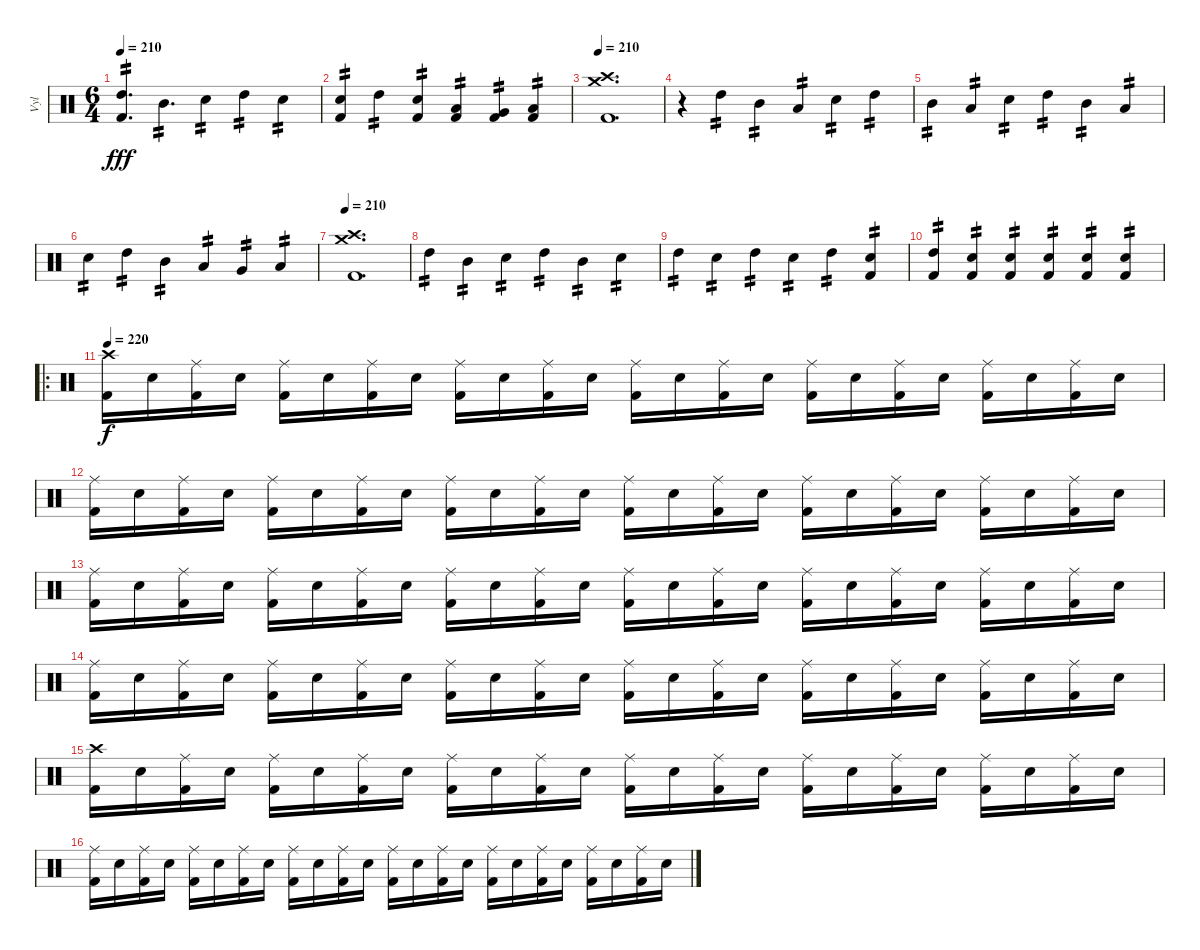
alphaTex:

\track ("Vyl" "Vyl") {instrument percussion}
\staff {score}
\articulation defaults
\ts (6 4)
\tempo 210
\clef neutral
\ks c
("Kick (hit) 2" "High Tom (hit)").4{d tp 2 dy fff} "Mid Tom (hit)".4{d tp 2} "Snare (hit) 2".4{tp 2} "High Tom (hit)".4{tp 2} "Snare (hit) 2".4{tp 2} |
("Kick (hit) 2" "Snare (hit) 2").4{tp 2} "High Tom (hit)".4{tp 2} ("Kick (hit) 2" "Snare (hit) 2").4{tp 2} ("Kick (hit) 2" "Low Tom (hit)").4{tp 2} ("Kick (hit) 2" "Very Low Tom (hit)").4{tp 2} ("Kick (hit) 2" "Low Floor Tom (hit)").4{tp 2} |
\tempo 210
("Crash medium (hit)" "Crash high (hit)" "Kick (hit) 2").1{d} |
r.4 "High Tom (hit)".4{tp 2} "Mid Tom (hit)".4{tp 2} "Low Tom (hit)".4{tp 2} "Snare (hit) 2".4{tp 2} "High Tom (hit)".4{tp 2} |
"Mid Tom (hit)".4{tp 2} "Low Tom (hit)".4{tp 2} "Snare (hit) 2".4{tp 2} "High Tom (hit)".4{tp 2} "Mid Tom (hit)".4{tp 2} "Low Tom (hit)".4{tp 2} |
"Snare (hit) 2".4{tp 2} "High Tom (hit)".4{tp 2} "Mid Tom (hit)".4{tp 2} "Low Tom (hit)".4{tp 2} "Very Low Tom (hit)".4{tp 2} "Low Floor Tom (hit)".4{tp 2} |
\tempo 210
("Crash medium (hit)" "Crash high (hit)" "Kick (hit) 2").1{d} |
"High Tom (hit)".4{tp 2} "Mid Tom (hit)".4{tp 2} "Snare (hit) 2".4{tp 2} "High Tom (hit)".4{tp 2} "Mid Tom (hit)".4{tp 2} "Snare (hit) 2".4{tp 2} |
"High Tom (hit)".4{tp 2} "Snare (hit) 2".4{tp 2} "High Tom (hit)".4{tp 2} "Snare (hit) 2".4{tp 2} "High Tom (hit)".4{tp 2} ("Kick (hit) 2" "Snare (hit) 2").4{tp 2} |
("Kick (hit) 2" "High Tom (hit)").4{tp 2} ("Kick (hit) 2" "Snare (hit) 2").4{tp 2} ("Kick (hit) 2" "Snare (hit) 2").4{tp 2} ("Kick (hit) 2" "Snare (hit) 2").4{tp 2} ("Kick (hit) 2" "Snare (hit) 2").4{tp 2} ("Kick (hit) 2" "Snare (hit) 2").4{tp 2} |
\ro
\tempo 220
("Crash high (hit)" "Kick (hit) 2").16{dy f} "Snare (hit) 2".16 ("Ride (middle)" "Kick (hit) 2").16 "Snare (hit) 2".16 ("Ride (middle)" "Kick (hit) 2").16 "Snare (hit) 2".16 ("Ride (middle)" "Kick (hit) 2").16 "Snare (hit) 2".16 ("Ride (middle)" "Kick (hit) 2").16 "Snare (hit) 2".16 ("Ride (middle)" "Kick (hit) 2").16 "Snare (hit) 2".16 ("Ride (middle)" "Kick (hit) 2").16 "Snare (hit) 2".16 ("Ride (middle)" "Kick (hit) 2").16 "Snare (hit) 2".16 ("Ride (middle)" "Kick (hit) 2").16 "Snare (hit) 2".16 ("Ride (middle)" "Kick (hit) 2").16 "Snare (hit) 2".16 ("Ride (middle)" "Kick (hit) 2").16 "Snare (hit) 2".16 ("Ride (middle)" "Kick (hit) 2").16 "Snare (hit) 2".16 |
("Ride (middle)" "Kick (hit) 2").16 "Snare (hit) 2".16 ("Ride (middle)" "Kick (hit) 2").16 "Snare (hit) 2".16 ("Ride (middle)" "Kick (hit) 2").16 "Snare (hit) 2".16 ("Ride (middle)" "Kick (hit) 2").16 "Snare (hit) 2".16 ("Ride (middle)" "Kick (hit) 2").16 "Snare (hit) 2".16 ("Ride (middle)" "Kick (hit) 2").16 "Snare (hit) 2".16 ("Ride (middle)" "Kick (hit) 2").16 "Snare (hit) 2".16 ("Ride (middle)" "Kick (hit) 2").16 "Snare (hit) 2".16 ("Ride (middle)" "Kick (hit) 2").16 "Snare (hit) 2".16 ("Ride (middle)" "Kick (hit) 2").16 "Snare (hit) 2".16 ("Ride (middle)" "Kick (hit) 2").16 "Snare (hit) 2".16 ("Ride (middle)" "Kick (hit) 2").16 "Snare (hit) 2".16 |
("Ride (middle)" "Kick (hit) 2").16 "Snare (hit) 2".16 ("Ride (middle)" "Kick (hit) 2").16 "Snare (hit) 2".16 ("Ride (middle)" "Kick (hit) 2").16 "Snare (hit) 2".16 ("Ride (middle)" "Kick (hit) 2").16 "Snare (hit) 2".16 ("Ride (middle)" "Kick (hit) 2").16 "Snare (hit) 2".16 ("Ride (middle)" "Kick (hit) 2").16 "Snare (hit) 2".16 ("Ride (middle)" "Kick (hit) 2").16 "Snare (hit) 2".16 ("Ride (middle)" "Kick (hit) 2").16 "Snare (hit) 2".16 ("Ride (middle)" "Kick (hit) 2").16 "Snare (hit) 2".16 ("Ride (middle)" "Kick (hit) 2").16 "Snare (hit) 2".16 ("Ride (middle)" "Kick (hit) 2").16 "Snare (hit) 2".16 ("Ride (middle)" "Kick (hit) 2").16 "Snare (hit) 2".16 |
("Ride (middle)" "Kick (hit) 2").16 "Snare (hit) 2".16 ("Ride (middle)" "Kick (hit) 2").16 "Snare (hit) 2".16 ("Ride (middle)" "Kick (hit) 2").16 "Snare (hit) 2".16 ("Ride (middle)" "Kick (hit) 2").16 "Snare (hit) 2".16 ("Ride (middle)" "Kick (hit) 2").16 "Snare (hit) 2".16 ("Ride (middle)" "Kick (hit) 2").16 "Snare (hit) 2".16 ("Ride (middle)" "Kick (hit) 2").16 "Snare (hit) 2".16 ("Ride (middle)" "Kick (hit) 2").16 "Snare (hit) 2".16 ("Ride (middle)" "Kick (hit) 2").16 "Snare (hit) 2".16 ("Ride (middle)" "Kick (hit) 2").16 "Snare (hit) 2".16 ("Ride (middle)" "Kick (hit) 2").16 "Snare (hit) 2".16 ("Ride (middle)" "Kick (hit) 2").16 "Snare (hit) 2".16 |
("Crash high (hit)" "Kick (hit) 2").16 "Snare (hit) 2".16 ("Ride (middle)" "Kick (hit) 2").16 "Snare (hit) 2".16 ("Ride (middle)" "Kick (hit) 2").16 "Snare (hit) 2".16 ("Ride (middle)" "Kick (hit) 2").16 "Snare (hit) 2".16 ("Ride (middle)" "Kick (hit) 2").16 "Snare (hit) 2".16 ("Ride (middle)" "Kick (hit) 2").16 "Snare (hit) 2".16 ("Ride (middle)" "Kick (hit) 2").16 "Snare (hit) 2".16 ("Ride (middle)" "Kick (hit) 2").16 "Snare (hit) 2".16 ("Ride (middle)" "Kick (hit) 2").16 "Snare (hit) 2".16 ("Ride (middle)" "Kick (hit) 2").16 "Snare (hit) 2".16 ("Ride (middle)" "Kick (hit) 2").16 "Snare (hit) 2".16 ("Ride (middle)" "Kick (hit) 2").16 "Snare (hit) 2".16 |
("Ride (middle)" "Kick (hit) 2").16 "Snare (hit) 2".16 ("Ride (middle)" "Kick (hit) 2").16 "Snare (hit) 2".16 ("Ride (middle)" "Kick (hit) 2").16 "Snare (hit) 2".16 ("Ride (middle)" "Kick (hit) 2").16 "Snare (hit) 2".16 ("Ride (middle)" "Kick (hit) 2").16 "Snare (hit) 2".16 ("Ride (middle)" "Kick (hit) 2").16 "Snare (hit) 2".16 ("Ride (middle)" "Kick (hit) 2").16 "Snare (hit) 2".16 ("Ride (middle)" "Kick (hit) 2").16 "Snare (hit) 2".16 ("Ride (middle)" "Kick (hit) 2").16 "Snare (hit) 2".16 ("Ride (middle)" "Kick (hit) 2").16 "Snare (hit) 2".16 ("Ride (middle)" "Kick (hit) 2").16 "Snare (hit) 2".16 ("Ride (middle)" "Kick (hit) 2").16 "Snare (hit) 2".16
